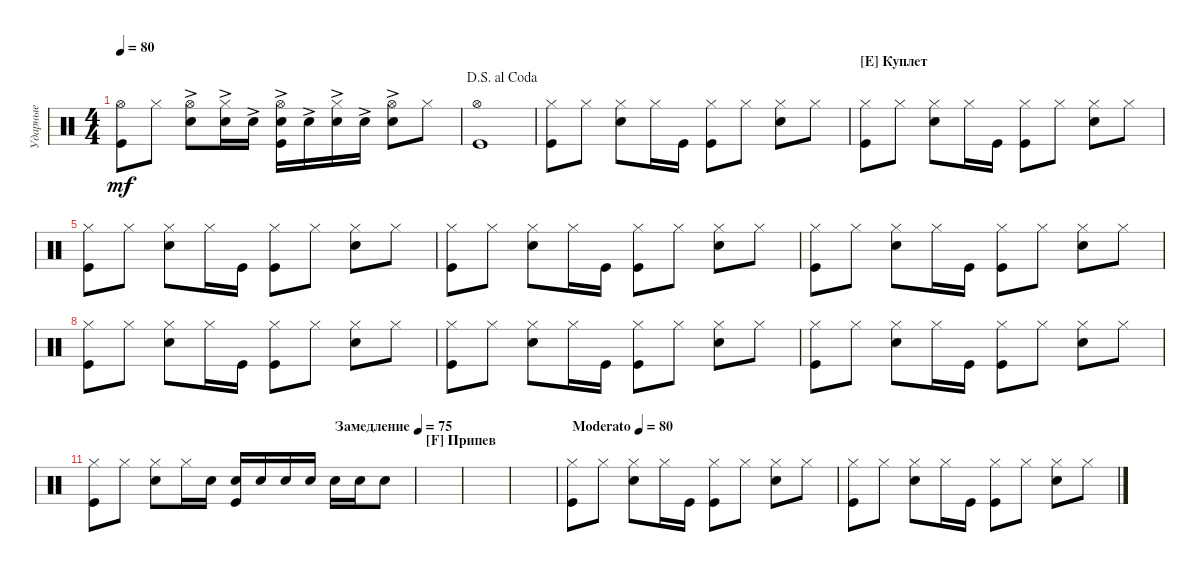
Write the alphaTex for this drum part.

\defaultSystemsLayout 4
\bracketExtendMode groupsimilarinstruments
\multiTrackTrackNamePolicy hidden
\firstSystemTrackNameMode fullname
\otherSystemsTrackNameMode fullname
\otherSystemsTrackNameOrientation horizontal
\defaultBarNumberDisplay FirstOfSystem
\track ("Ударные" "Drums") {instrument percussion}
\staff {score}
\articulation defaults
\ts (4 4)
\tempo 80
\clef neutral
\scale
0.333333
\ks aminor
("Hi-Hat (open)" "Kick (hit)").8{dy mf} "Hi-Hat (closed)".8 ("Hi-Hat (open)" "Snare (hit) 2"{ac}).8 ("Snare (hit) 2"{ac} "Hi-Hat (closed)").16 "Snare (hit) 2"{ac}.16 ("Snare (hit) 2"{ac} "Kick (hit)" "Hi-Hat (open)").16 "Snare (hit) 2"{ac}.16 ("Snare (hit) 2"{ac} "Hi-Hat (closed)").16 "Snare (hit) 2"{ac}.16 ("Hi-Hat (open)" "Snare (hit) 2"{ac}).8 "Hi-Hat (closed)".8 |
\jump dalsegnoalcoda
\scale
0.333333 ("Hi-Hat (open)" "Kick (hit)").1 |
\scale
0.333333 ("Hi-Hat (closed)" "Kick (hit)").8 "Hi-Hat (closed)".8 ("Hi-Hat (closed)" "Snare (hit) 2").8 "Hi-Hat (closed)".16 "Kick (hit)".16 ("Hi-Hat (closed)" "Kick (hit)").8 "Hi-Hat (closed)".8 ("Hi-Hat (closed)" "Snare (hit) 2").8 "Hi-Hat (closed)".8 |
\section ("E" "Куплет")
\scale
0.333333 ("Hi-Hat (closed)" "Kick (hit)").8 "Hi-Hat (closed)".8 ("Hi-Hat (closed)" "Snare (hit) 2").8 "Hi-Hat (closed)".16 "Kick (hit)".16 ("Hi-Hat (closed)" "Kick (hit)").8 "Hi-Hat (closed)".8 ("Hi-Hat (closed)" "Snare (hit) 2").8 "Hi-Hat (closed)".8 |
\scale
0.333333 ("Hi-Hat (closed)" "Kick (hit)").8 "Hi-Hat (closed)".8 ("Hi-Hat (closed)" "Snare (hit) 2").8 "Hi-Hat (closed)".16 "Kick (hit)".16 ("Hi-Hat (closed)" "Kick (hit)").8 "Hi-Hat (closed)".8 ("Hi-Hat (closed)" "Snare (hit) 2").8 "Hi-Hat (closed)".8 |
\scale
0.333333 ("Hi-Hat (closed)" "Kick (hit)").8 "Hi-Hat (closed)".8 ("Hi-Hat (closed)" "Snare (hit) 2").8 "Hi-Hat (closed)".16 "Kick (hit)".16 ("Hi-Hat (closed)" "Kick (hit)").8 "Hi-Hat (closed)".8 ("Hi-Hat (closed)" "Snare (hit) 2").8 "Hi-Hat (closed)".8 |
\scale
0.333333 ("Hi-Hat (closed)" "Kick (hit)").8 "Hi-Hat (closed)".8 ("Hi-Hat (closed)" "Snare (hit) 2").8 "Hi-Hat (closed)".16 "Kick (hit)".16 ("Hi-Hat (closed)" "Kick (hit)").8 "Hi-Hat (closed)".8 ("Hi-Hat (closed)" "Snare (hit) 2").8 "Hi-Hat (closed)".8 |
\scale
0.333333 ("Hi-Hat (closed)" "Kick (hit)").8 "Hi-Hat (closed)".8 ("Hi-Hat (closed)" "Snare (hit) 2").8 "Hi-Hat (closed)".16 "Kick (hit)".16 ("Hi-Hat (closed)" "Kick (hit)").8 "Hi-Hat (closed)".8 ("Hi-Hat (closed)" "Snare (hit) 2").8 "Hi-Hat (closed)".8 |
\scale
0.333333 ("Hi-Hat (closed)" "Kick (hit)").8 "Hi-Hat (closed)".8 ("Hi-Hat (closed)" "Snare (hit) 2").8 "Hi-Hat (closed)".16 "Kick (hit)".16 ("Hi-Hat (closed)" "Kick (hit)").8 "Hi-Hat (closed)".8 ("Hi-Hat (closed)" "Snare (hit) 2").8 "Hi-Hat (closed)".8 |
\scale
0.333333 ("Hi-Hat (closed)" "Kick (hit)").8 "Hi-Hat (closed)".8 ("Hi-Hat (closed)" "Snare (hit) 2").8 "Hi-Hat (closed)".16 "Kick (hit)".16 ("Hi-Hat (closed)" "Kick (hit)").8 "Hi-Hat (closed)".8 ("Hi-Hat (closed)" "Snare (hit) 2").8 "Hi-Hat (closed)".8 |
\tempo (75 "Замедление" 0.75)
\scale
0.333333 ("Hi-Hat (closed)" "Kick (hit)").8 "Hi-Hat (closed)".8 ("Hi-Hat (closed)" "Snare (hit) 2").8 "Hi-Hat (closed)".16 "Snare (hit) 2".16 ("Kick (hit)" "Snare (hit) 2").16 "Snare (hit) 2".16 "Snare (hit) 2".16 "Snare (hit) 2".16 "Snare (hit) 2".16 "Snare (hit) 2".16 "Snare (hit) 2".8 |
\section ("F" "Припев")
\scale
0.333333 |
\scale
0.333333 |
\scale
0.333333 |
\tempo (80 "Moderato")
\scale
0.333333 ("Hi-Hat (closed)" "Kick (hit)").8 "Hi-Hat (closed)".8 ("Hi-Hat (closed)" "Snare (hit) 2").8 "Hi-Hat (closed)".16 "Kick (hit)".16 ("Hi-Hat (closed)" "Kick (hit)").8 "Hi-Hat (closed)".8 ("Hi-Hat (closed)" "Snare (hit) 2").8 "Hi-Hat (closed)".8 |
\scale
0.333333 ("Hi-Hat (closed)" "Kick (hit)").8 "Hi-Hat (closed)".8 ("Hi-Hat (closed)" "Snare (hit) 2").8 "Hi-Hat (closed)".16 "Kick (hit)".16 ("Hi-Hat (closed)" "Kick (hit)").8 "Hi-Hat (closed)".8 ("Hi-Hat (closed)" "Snare (hit) 2").8 "Hi-Hat (closed)".8
